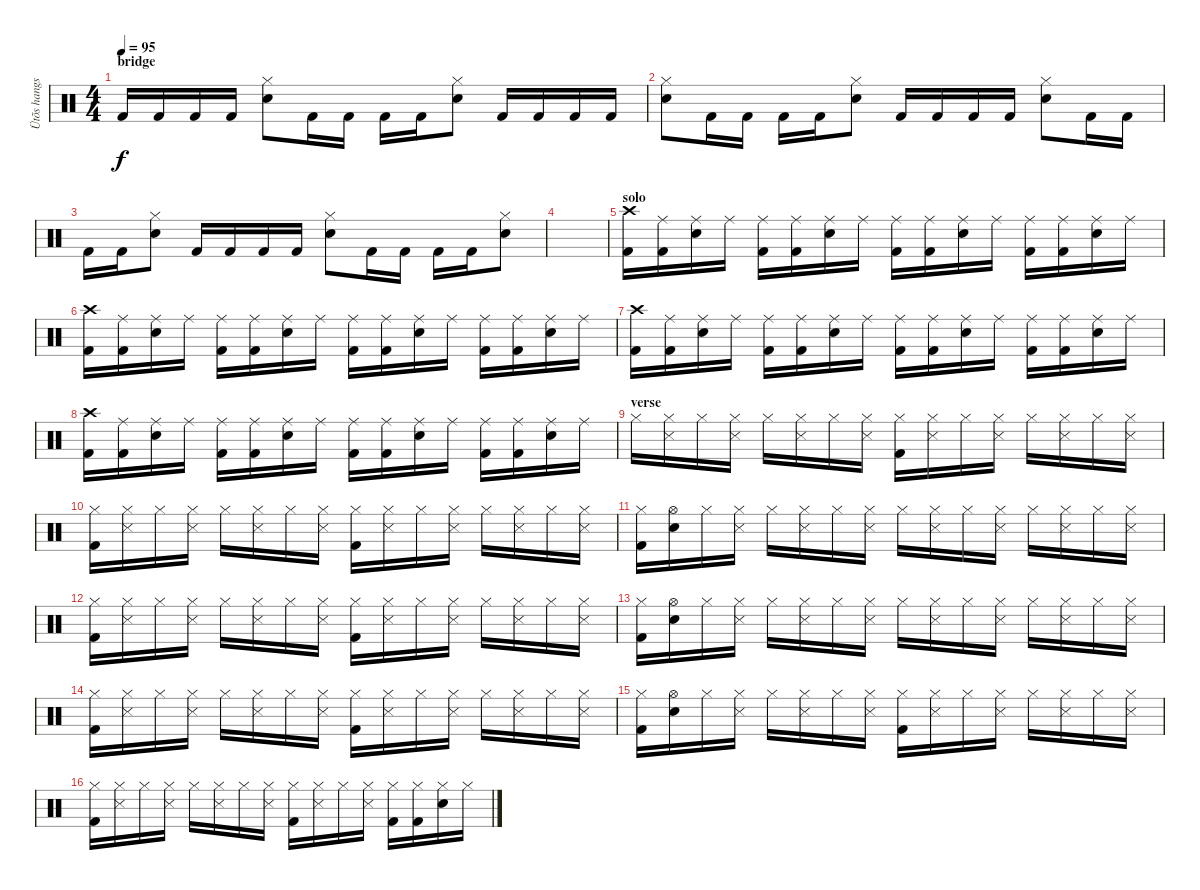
\track ("Ütõs hangszer" "Ütõs hangs") {instrument percussion}
\staff {score}
\articulation defaults
\ts (4 4)
\section ("" "bridge")
\tempo 95
\clef neutral
\ks c "Kick (hit) 2".16{dy f} "Kick (hit) 2".16 "Kick (hit) 2".16 "Kick (hit) 2".16
("Hi-Hat (closed)" "Snare (hit) 2").8 "Kick (hit) 2".16 "Kick (hit) 2".16 "Kick (hit) 2".16 "Kick (hit) 2".16 ("Hi-Hat (closed)" "Snare (hit) 2").8 "Kick (hit) 2".16 "Kick (hit) 2".16 "Kick (hit) 2".16 "Kick (hit) 2".16 |
("Hi-Hat (closed)" "Snare (hit) 2").8 "Kick (hit) 2".16 "Kick (hit) 2".16 "Kick (hit) 2".16 "Kick (hit) 2".16 ("Hi-Hat (closed)" "Snare (hit) 2").8 "Kick (hit) 2".16 "Kick (hit) 2".16 "Kick (hit) 2".16 "Kick (hit) 2".16 ("Hi-Hat (closed)" "Snare (hit) 2").8 "Kick (hit) 2".16 "Kick (hit) 2".16 |
"Kick (hit) 2".16 "Kick (hit) 2".16 ("Hi-Hat (closed)" "Snare (hit) 2").8 "Kick (hit) 2".16 "Kick (hit) 2".16 "Kick (hit) 2".16 "Kick (hit) 2".16 ("Hi-Hat (closed)" "Snare (hit) 2").8 "Kick (hit) 2".16 "Kick (hit) 2".16 "Kick (hit) 2".16 "Kick (hit) 2".16 ("Hi-Hat (closed)" "Snare (hit) 2").8 |
|
\section ("" "solo")
("Crash high (hit)" "Kick (hit) 2").16 ("Ride (middle)" "Kick (hit) 2").16 ("Ride (middle)" "Snare (hit) 2").16 "Ride (middle)".16 ("Ride (middle)" "Kick (hit) 2").16 ("Ride (middle)" "Kick (hit) 2").16 ("Ride (middle)" "Snare (hit) 2").16 "Ride (middle)".16 ("Ride (middle)" "Kick (hit) 2").16 ("Ride (middle)" "Kick (hit) 2").16 ("Ride (middle)" "Snare (hit) 2").16 "Ride (middle)".16 ("Ride (middle)" "Kick (hit) 2").16 ("Ride (middle)" "Kick (hit) 2").16 ("Ride (middle)" "Snare (hit) 2").16 "Ride (middle)".16 |
("Crash high (hit)" "Kick (hit) 2").16 ("Ride (middle)" "Kick (hit) 2").16 ("Ride (middle)" "Snare (hit) 2").16 "Ride (middle)".16 ("Ride (middle)" "Kick (hit) 2").16 ("Ride (middle)" "Kick (hit) 2").16 ("Ride (middle)" "Snare (hit) 2").16 "Ride (middle)".16 ("Ride (middle)" "Kick (hit) 2").16 ("Ride (middle)" "Kick (hit) 2").16 ("Ride (middle)" "Snare (hit) 2").16 "Ride (middle)".16 ("Ride (middle)" "Kick (hit) 2").16 ("Ride (middle)" "Kick (hit) 2").16 ("Ride (middle)" "Snare (hit) 2").16 "Ride (middle)".16 |
("Crash high (hit)" "Kick (hit) 2").16 ("Ride (middle)" "Kick (hit) 2").16 ("Ride (middle)" "Snare (hit) 2").16 "Ride (middle)".16 ("Ride (middle)" "Kick (hit) 2").16 ("Ride (middle)" "Kick (hit) 2").16 ("Ride (middle)" "Snare (hit) 2").16 "Ride (middle)".16 ("Ride (middle)" "Kick (hit) 2").16 ("Ride (middle)" "Kick (hit) 2").16 ("Ride (middle)" "Snare (hit) 2").16 "Ride (middle)".16 ("Ride (middle)" "Kick (hit) 2").16 ("Ride (middle)" "Kick (hit) 2").16 ("Ride (middle)" "Snare (hit) 2").16 "Ride (middle)".16 |
("Crash high (hit)" "Kick (hit) 2").16 ("Ride (middle)" "Kick (hit) 2").16 ("Ride (middle)" "Snare (hit) 2").16 "Ride (middle)".16 ("Ride (middle)" "Kick (hit) 2").16 ("Ride (middle)" "Kick (hit) 2").16 ("Ride (middle)" "Snare (hit) 2").16 "Ride (middle)".16 ("Ride (middle)" "Kick (hit) 2").16 ("Ride (middle)" "Kick (hit) 2").16 ("Ride (middle)" "Snare (hit) 2").16 "Ride (middle)".16 ("Ride (middle)" "Kick (hit) 2").16 ("Ride (middle)" "Kick (hit) 2").16 ("Ride (middle)" "Snare (hit) 2").16 "Ride (middle)".16 |
\section ("" "verse")
"Hi-Hat (closed)".16 ("Hi-Hat (closed)" "Snare (side stick) 3").16 "Hi-Hat (closed)".16 ("Hi-Hat (closed)" "Snare (side stick) 3").16 "Hi-Hat (closed)".16 ("Hi-Hat (closed)" "Snare (side stick) 3").16 "Hi-Hat (closed)".16 ("Hi-Hat (closed)" "Snare (side stick) 3").16 ("Hi-Hat (closed)" "Kick (hit) 2").16 ("Hi-Hat (closed)" "Snare (side stick) 3").16 "Hi-Hat (closed)".16 ("Hi-Hat (closed)" "Snare (side stick) 3").16 "Hi-Hat (closed)".16 ("Hi-Hat (closed)" "Snare (side stick) 3").16 "Hi-Hat (closed)".16 ("Hi-Hat (closed)" "Snare (side stick) 3").16 |
("Hi-Hat (closed)" "Kick (hit) 2").16 ("Hi-Hat (closed)" "Snare (side stick) 3").16 "Hi-Hat (closed)".16 ("Hi-Hat (closed)" "Snare (side stick) 3").16 "Hi-Hat (closed)".16 ("Hi-Hat (closed)" "Snare (side stick) 3").16 "Hi-Hat (closed)".16 ("Hi-Hat (closed)" "Snare (side stick) 3").16 ("Hi-Hat (closed)" "Kick (hit) 2").16 ("Hi-Hat (closed)" "Snare (side stick) 3").16 "Hi-Hat (closed)".16 ("Hi-Hat (closed)" "Snare (side stick) 3").16 "Hi-Hat (closed)".16 ("Hi-Hat (closed)" "Snare (side stick) 3").16 "Hi-Hat (closed)".16 ("Hi-Hat (closed)" "Snare (side stick) 3").16 |
("Hi-Hat (closed)" "Kick (hit) 2").16 ("Hi-Hat (open)" "Snare (hit) 2").16 "Hi-Hat (closed)".16 ("Hi-Hat (closed)" "Snare (side stick) 3").16 "Hi-Hat (closed)".16 ("Hi-Hat (closed)" "Snare (side stick) 3").16 "Hi-Hat (closed)".16 ("Hi-Hat (closed)" "Snare (side stick) 3").16 "Hi-Hat (closed)".16 ("Hi-Hat (closed)" "Snare (side stick) 3").16 "Hi-Hat (closed)".16 ("Hi-Hat (closed)" "Snare (side stick) 3").16 "Hi-Hat (closed)".16 ("Hi-Hat (closed)" "Snare (side stick) 3").16 "Hi-Hat (closed)".16 ("Hi-Hat (closed)" "Snare (side stick) 3").16 |
("Hi-Hat (closed)" "Kick (hit) 2").16 ("Hi-Hat (closed)" "Snare (side stick) 3").16 "Hi-Hat (closed)".16 ("Hi-Hat (closed)" "Snare (side stick) 3").16 "Hi-Hat (closed)".16 ("Hi-Hat (closed)" "Snare (side stick) 3").16 "Hi-Hat (closed)".16 ("Hi-Hat (closed)" "Snare (side stick) 3").16 ("Hi-Hat (closed)" "Kick (hit) 2").16 ("Hi-Hat (closed)" "Snare (side stick) 3").16 "Hi-Hat (closed)".16 ("Hi-Hat (closed)" "Snare (side stick) 3").16 "Hi-Hat (closed)".16 ("Hi-Hat (closed)" "Snare (side stick) 3").16 "Hi-Hat (closed)".16 ("Hi-Hat (closed)" "Snare (side stick) 3").16 |
("Hi-Hat (closed)" "Kick (hit) 2").16 ("Hi-Hat (open)" "Snare (hit) 2").16 "Hi-Hat (closed)".16 ("Hi-Hat (closed)" "Snare (side stick) 3").16 "Hi-Hat (closed)".16 ("Hi-Hat (closed)" "Snare (side stick) 3").16 "Hi-Hat (closed)".16 ("Hi-Hat (closed)" "Snare (side stick) 3").16 "Hi-Hat (closed)".16 ("Hi-Hat (closed)" "Snare (side stick) 3").16 "Hi-Hat (closed)".16 ("Hi-Hat (closed)" "Snare (side stick) 3").16 "Hi-Hat (closed)".16 ("Hi-Hat (closed)" "Snare (side stick) 3").16 "Hi-Hat (closed)".16 ("Hi-Hat (closed)" "Snare (side stick) 3").16 |
("Hi-Hat (closed)" "Kick (hit) 2").16 ("Hi-Hat (closed)" "Snare (side stick) 3").16 "Hi-Hat (closed)".16 ("Hi-Hat (closed)" "Snare (side stick) 3").16 "Hi-Hat (closed)".16 ("Hi-Hat (closed)" "Snare (side stick) 3").16 "Hi-Hat (closed)".16 ("Hi-Hat (closed)" "Snare (side stick) 3").16 ("Hi-Hat (closed)" "Kick (hit) 2").16 ("Hi-Hat (closed)" "Snare (side stick) 3").16 "Hi-Hat (closed)".16 ("Hi-Hat (closed)" "Snare (side stick) 3").16 "Hi-Hat (closed)".16 ("Hi-Hat (closed)" "Snare (side stick) 3").16 "Hi-Hat (closed)".16 ("Hi-Hat (closed)" "Snare (side stick) 3").16 |
("Hi-Hat (closed)" "Kick (hit) 2").16 ("Hi-Hat (open)" "Snare (hit) 2").16 "Hi-Hat (closed)".16 ("Hi-Hat (closed)" "Snare (side stick) 3").16 "Hi-Hat (closed)".16 ("Hi-Hat (closed)" "Snare (side stick) 3").16 "Hi-Hat (closed)".16 ("Hi-Hat (closed)" "Snare (side stick) 3").16 ("Hi-Hat (closed)" "Kick (hit) 2").16 ("Hi-Hat (closed)" "Snare (side stick) 3").16 "Hi-Hat (closed)".16 ("Hi-Hat (closed)" "Snare (side stick) 3").16 "Hi-Hat (closed)".16 ("Hi-Hat (closed)" "Snare (side stick) 3").16 "Hi-Hat (closed)".16 ("Hi-Hat (closed)" "Snare (side stick) 3").16 |
("Hi-Hat (closed)" "Kick (hit) 2").16 ("Hi-Hat (closed)" "Snare (side stick) 3").16 "Hi-Hat (closed)".16 ("Hi-Hat (closed)" "Snare (side stick) 3").16 "Hi-Hat (closed)".16 ("Hi-Hat (closed)" "Snare (side stick) 3").16 "Hi-Hat (closed)".16 ("Hi-Hat (closed)" "Snare (side stick) 3").16 ("Hi-Hat (closed)" "Kick (hit) 2").16 ("Hi-Hat (closed)" "Snare (side stick) 3").16 "Hi-Hat (closed)".16 ("Hi-Hat (closed)" "Snare (side stick) 3").16 ("Hi-Hat (closed)" "Kick (hit) 2").16 ("Hi-Hat (closed)" "Kick (hit) 2").16 ("Hi-Hat (closed)" "Snare (hit) 2").16 "Hi-Hat (closed)".16
